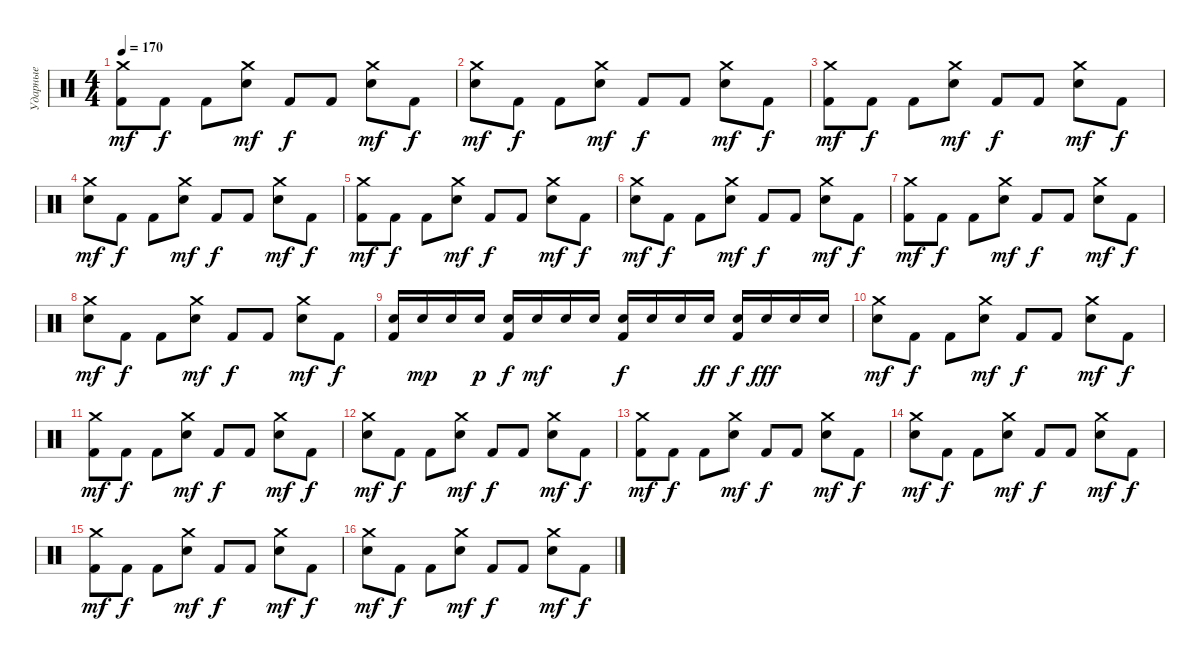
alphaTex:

\track ("Ударные" "Ударные") {instrument percussion}
\staff {score}
\articulation defaults
\ts (4 4)
\tempo 170
\clef neutral
\ks c
("Crash medium (hit)" "Kick (hit) 2").8{dy mf} "Kick (hit) 2".8{dy f} "Kick (hit) 2".8 ("Crash medium (hit)" "Electric Snare (hit)").8{dy mf} "Kick (hit) 2".8{dy f} "Kick (hit) 2".8 ("Crash medium (hit)" "Electric Snare (hit)").8{dy mf} "Kick (hit) 2".8{dy f} |
("Crash medium (hit)" "Electric Snare (hit)").8{dy mf} "Kick (hit) 2".8{dy f} "Kick (hit) 2".8 ("Crash medium (hit)" "Electric Snare (hit)").8{dy mf} "Kick (hit) 2".8{dy f} "Kick (hit) 2".8 ("Crash medium (hit)" "Electric Snare (hit)").8{dy mf} "Kick (hit) 2".8{dy f} |
("Crash medium (hit)" "Kick (hit) 2").8{dy mf} "Kick (hit) 2".8{dy f} "Kick (hit) 2".8 ("Crash medium (hit)" "Electric Snare (hit)").8{dy mf} "Kick (hit) 2".8{dy f} "Kick (hit) 2".8 ("Crash medium (hit)" "Electric Snare (hit)").8{dy mf} "Kick (hit) 2".8{dy f} |
("Crash medium (hit)" "Electric Snare (hit)").8{dy mf} "Kick (hit) 2".8{dy f} "Kick (hit) 2".8 ("Crash medium (hit)" "Electric Snare (hit)").8{dy mf} "Kick (hit) 2".8{dy f} "Kick (hit) 2".8 ("Crash medium (hit)" "Electric Snare (hit)").8{dy mf} "Kick (hit) 2".8{dy f} |
("Crash medium (hit)" "Kick (hit) 2").8{dy mf} "Kick (hit) 2".8{dy f} "Kick (hit) 2".8 ("Crash medium (hit)" "Electric Snare (hit)").8{dy mf} "Kick (hit) 2".8{dy f} "Kick (hit) 2".8 ("Crash medium (hit)" "Electric Snare (hit)").8{dy mf} "Kick (hit) 2".8{dy f} |
("Crash medium (hit)" "Electric Snare (hit)").8{dy mf} "Kick (hit) 2".8{dy f} "Kick (hit) 2".8 ("Crash medium (hit)" "Electric Snare (hit)").8{dy mf} "Kick (hit) 2".8{dy f} "Kick (hit) 2".8 ("Crash medium (hit)" "Electric Snare (hit)").8{dy mf} "Kick (hit) 2".8{dy f} |
("Crash medium (hit)" "Kick (hit) 2").8{dy mf} "Kick (hit) 2".8{dy f} "Kick (hit) 2".8 ("Crash medium (hit)" "Electric Snare (hit)").8{dy mf} "Kick (hit) 2".8{dy f} "Kick (hit) 2".8 ("Crash medium (hit)" "Electric Snare (hit)").8{dy mf} "Kick (hit) 2".8{dy f} |
("Crash medium (hit)" "Electric Snare (hit)").8{dy mf} "Kick (hit) 2".8{dy f} "Kick (hit) 2".8 ("Crash medium (hit)" "Electric Snare (hit)").8{dy mf} "Kick (hit) 2".8{dy f} "Kick (hit) 2".8 ("Crash medium (hit)" "Electric Snare (hit)").8{dy mf} "Kick (hit) 2".8{dy f} |
("Electric Snare (hit)" "Kick (hit) 2").16 "Electric Snare (hit)".16{dy mp} "Electric Snare (hit)".16 "Electric Snare (hit)".16{dy p} ("Electric Snare (hit)" "Kick (hit) 2").16{dy f} "Electric Snare (hit)".16{dy mf} "Electric Snare (hit)".16 "Electric Snare (hit)".16 ("Electric Snare (hit)" "Kick (hit) 2").16{dy f} "Electric Snare (hit)".16 "Electric Snare (hit)".16 "Electric Snare (hit)".16{dy ff} ("Electric Snare (hit)" "Kick (hit) 2").16{dy f} "Electric Snare (hit)".16{dy fff} "Electric Snare (hit)".16 "Electric Snare (hit)".16 |
("Crash medium (hit)" "Electric Snare (hit)").8{dy mf} "Kick (hit) 2".8{dy f} "Kick (hit) 2".8 ("Crash medium (hit)" "Electric Snare (hit)").8{dy mf} "Kick (hit) 2".8{dy f} "Kick (hit) 2".8 ("Crash medium (hit)" "Electric Snare (hit)").8{dy mf} "Kick (hit) 2".8{dy f} |
("Crash medium (hit)" "Kick (hit) 2").8{dy mf} "Kick (hit) 2".8{dy f} "Kick (hit) 2".8 ("Crash medium (hit)" "Electric Snare (hit)").8{dy mf} "Kick (hit) 2".8{dy f} "Kick (hit) 2".8 ("Crash medium (hit)" "Electric Snare (hit)").8{dy mf} "Kick (hit) 2".8{dy f} |
("Crash medium (hit)" "Electric Snare (hit)").8{dy mf} "Kick (hit) 2".8{dy f} "Kick (hit) 2".8 ("Crash medium (hit)" "Electric Snare (hit)").8{dy mf} "Kick (hit) 2".8{dy f} "Kick (hit) 2".8 ("Crash medium (hit)" "Electric Snare (hit)").8{dy mf} "Kick (hit) 2".8{dy f} |
("Crash medium (hit)" "Kick (hit) 2").8{dy mf} "Kick (hit) 2".8{dy f} "Kick (hit) 2".8 ("Crash medium (hit)" "Electric Snare (hit)").8{dy mf} "Kick (hit) 2".8{dy f} "Kick (hit) 2".8 ("Crash medium (hit)" "Electric Snare (hit)").8{dy mf} "Kick (hit) 2".8{dy f} |
("Crash medium (hit)" "Electric Snare (hit)").8{dy mf} "Kick (hit) 2".8{dy f} "Kick (hit) 2".8 ("Crash medium (hit)" "Electric Snare (hit)").8{dy mf} "Kick (hit) 2".8{dy f} "Kick (hit) 2".8 ("Crash medium (hit)" "Electric Snare (hit)").8{dy mf} "Kick (hit) 2".8{dy f} |
("Crash medium (hit)" "Kick (hit) 2").8{dy mf} "Kick (hit) 2".8{dy f} "Kick (hit) 2".8 ("Crash medium (hit)" "Electric Snare (hit)").8{dy mf} "Kick (hit) 2".8{dy f} "Kick (hit) 2".8 ("Crash medium (hit)" "Electric Snare (hit)").8{dy mf} "Kick (hit) 2".8{dy f} |
("Crash medium (hit)" "Electric Snare (hit)").8{dy mf} "Kick (hit) 2".8{dy f} "Kick (hit) 2".8 ("Crash medium (hit)" "Electric Snare (hit)").8{dy mf} "Kick (hit) 2".8{dy f} "Kick (hit) 2".8 ("Crash medium (hit)" "Electric Snare (hit)").8{dy mf} "Kick (hit) 2".8{dy f}
